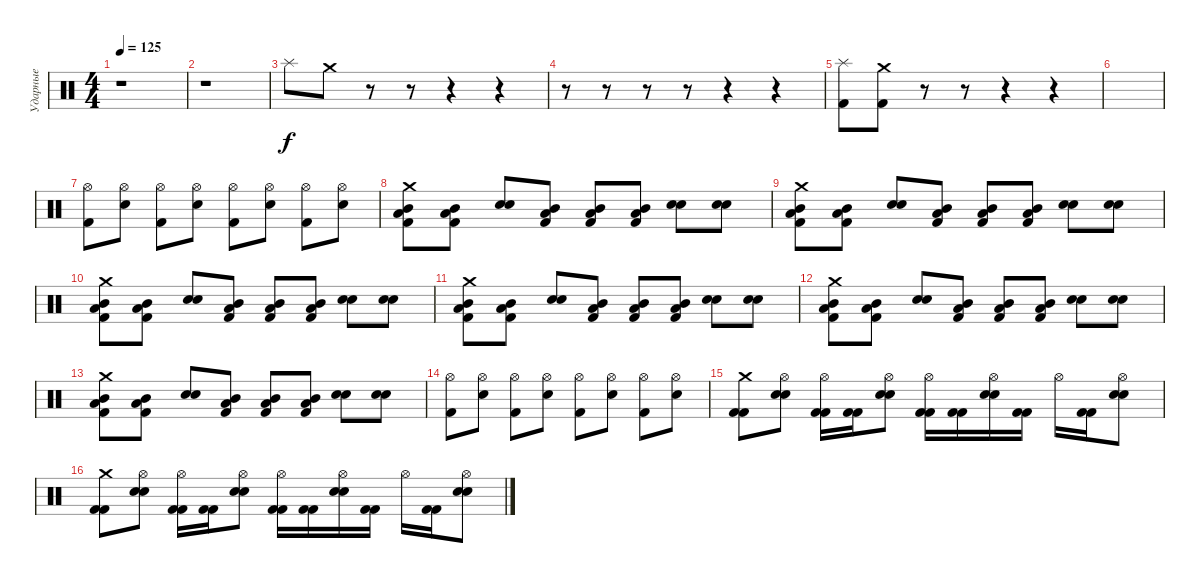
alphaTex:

\track ("Ударные" "Ударные") {instrument percussion}
\staff {score}
\articulation defaults
\ts (4 4)
\tempo 125
\clef neutral
\ks c
r.1{dy f} |
r.1 |
"Splash (hit)".8 "Crash medium (hit)".8 r.8 r.8 r.4 r.4 |
r.8 r.8 r.8 r.8 r.4 r.4 |
("Splash (hit)" "Kick (hit) 2").8 ("Crash medium (hit)" "Kick (hit) 2").8 r.8 r.8 r.4 r.4 |
|
("Hi-Hat (open)" "Kick (hit) 2").8 ("Hi-Hat (open)" "Electric Snare (hit)").8 ("Hi-Hat (open)" "Kick (hit) 2").8 ("Hi-Hat (open)" "Electric Snare (hit)").8 ("Hi-Hat (open)" "Kick (hit) 2").8 ("Hi-Hat (open)" "Electric Snare (hit)").8 ("Hi-Hat (open)" "Kick (hit) 2").8 ("Hi-Hat (open)" "Electric Snare (hit)").8 |
("Crash medium (hit)" "Low Tom (hit)" "Mid Tom (hit)" "Kick (hit) 2").8 ("Low Tom (hit)" "Mid Tom (hit)" "Kick (hit) 2").8 ("Electric Snare (hit)" "Electric Snare (hit)").8 ("Low Tom (hit)" "Mid Tom (hit)" "Kick (hit) 2").8 ("Low Tom (hit)" "Mid Tom (hit)" "Kick (hit) 2").8 ("Low Tom (hit)" "Mid Tom (hit)" "Kick (hit) 2").8 ("Electric Snare (hit)" "Electric Snare (hit)").8 ("Electric Snare (hit)" "Electric Snare (hit)").8 |
("Crash medium (hit)" "Low Tom (hit)" "Mid Tom (hit)" "Kick (hit) 2").8 ("Low Tom (hit)" "Mid Tom (hit)" "Kick (hit) 2").8 ("Electric Snare (hit)" "Electric Snare (hit)").8 ("Low Tom (hit)" "Mid Tom (hit)" "Kick (hit) 2").8 ("Low Tom (hit)" "Mid Tom (hit)" "Kick (hit) 2").8 ("Low Tom (hit)" "Mid Tom (hit)" "Kick (hit) 2").8 ("Electric Snare (hit)" "Electric Snare (hit)").8 ("Electric Snare (hit)" "Electric Snare (hit)").8 |
("Crash medium (hit)" "Low Tom (hit)" "Mid Tom (hit)" "Kick (hit) 2").8 ("Low Tom (hit)" "Mid Tom (hit)" "Kick (hit) 2").8 ("Electric Snare (hit)" "Electric Snare (hit)").8 ("Low Tom (hit)" "Mid Tom (hit)" "Kick (hit) 2").8 ("Low Tom (hit)" "Mid Tom (hit)" "Kick (hit) 2").8 ("Low Tom (hit)" "Mid Tom (hit)" "Kick (hit) 2").8 ("Electric Snare (hit)" "Electric Snare (hit)").8 ("Electric Snare (hit)" "Electric Snare (hit)").8 |
("Crash medium (hit)" "Low Tom (hit)" "Mid Tom (hit)" "Kick (hit) 2").8 ("Low Tom (hit)" "Mid Tom (hit)" "Kick (hit) 2").8 ("Electric Snare (hit)" "Electric Snare (hit)").8 ("Low Tom (hit)" "Mid Tom (hit)" "Kick (hit) 2").8 ("Low Tom (hit)" "Mid Tom (hit)" "Kick (hit) 2").8 ("Low Tom (hit)" "Mid Tom (hit)" "Kick (hit) 2").8 ("Electric Snare (hit)" "Electric Snare (hit)").8 ("Electric Snare (hit)" "Electric Snare (hit)").8 |
("Crash medium (hit)" "Low Tom (hit)" "Mid Tom (hit)" "Kick (hit) 2").8 ("Low Tom (hit)" "Mid Tom (hit)" "Kick (hit) 2").8 ("Electric Snare (hit)" "Electric Snare (hit)").8 ("Low Tom (hit)" "Mid Tom (hit)" "Kick (hit) 2").8 ("Low Tom (hit)" "Mid Tom (hit)" "Kick (hit) 2").8 ("Low Tom (hit)" "Mid Tom (hit)" "Kick (hit) 2").8 ("Electric Snare (hit)" "Electric Snare (hit)").8 ("Electric Snare (hit)" "Electric Snare (hit)").8 |
("Crash medium (hit)" "Low Tom (hit)" "Mid Tom (hit)" "Kick (hit) 2").8 ("Low Tom (hit)" "Mid Tom (hit)" "Kick (hit) 2").8 ("Electric Snare (hit)" "Electric Snare (hit)").8 ("Low Tom (hit)" "Mid Tom (hit)" "Kick (hit) 2").8 ("Low Tom (hit)" "Mid Tom (hit)" "Kick (hit) 2").8 ("Low Tom (hit)" "Mid Tom (hit)" "Kick (hit) 2").8 ("Electric Snare (hit)" "Electric Snare (hit)").8 ("Electric Snare (hit)" "Electric Snare (hit)").8 |
("Hi-Hat (open)" "Kick (hit) 2").8 ("Hi-Hat (open)" "Electric Snare (hit)").8 ("Hi-Hat (open)" "Kick (hit) 2").8 ("Hi-Hat (open)" "Electric Snare (hit)").8 ("Hi-Hat (open)" "Kick (hit) 2").8 ("Hi-Hat (open)" "Electric Snare (hit)").8 ("Hi-Hat (open)" "Kick (hit) 2").8 ("Hi-Hat (open)" "Electric Snare (hit)").8 |
("Crash medium (hit)" "Kick (hit) 2" "Kick (hit) 2").8 ("Hi-Hat (open)" "Electric Snare (hit)" "Electric Snare (hit)").8 ("Hi-Hat (open)" "Kick (hit) 2" "Kick (hit) 2").16 ("Kick (hit) 2" "Kick (hit) 2").16 ("Hi-Hat (open)" "Electric Snare (hit)" "Electric Snare (hit)").8 ("Hi-Hat (open)" "Kick (hit) 2" "Kick (hit) 2").16 ("Kick (hit) 2" "Kick (hit) 2").16 ("Hi-Hat (open)" "Electric Snare (hit)" "Electric Snare (hit)").16 ("Kick (hit) 2" "Kick (hit) 2").16 "Hi-Hat (open)".16 ("Kick (hit) 2" "Kick (hit) 2").16 ("Hi-Hat (open)" "Electric Snare (hit)" "Electric Snare (hit)").8 |
("Crash medium (hit)" "Kick (hit) 2" "Kick (hit) 2").8 ("Hi-Hat (open)" "Electric Snare (hit)" "Electric Snare (hit)").8 ("Hi-Hat (open)" "Kick (hit) 2" "Kick (hit) 2").16 ("Kick (hit) 2" "Kick (hit) 2").16 ("Hi-Hat (open)" "Electric Snare (hit)" "Electric Snare (hit)").8 ("Hi-Hat (open)" "Kick (hit) 2" "Kick (hit) 2").16 ("Kick (hit) 2" "Kick (hit) 2").16 ("Hi-Hat (open)" "Electric Snare (hit)" "Electric Snare (hit)").16 ("Kick (hit) 2" "Kick (hit) 2").16 "Hi-Hat (open)".16 ("Kick (hit) 2" "Kick (hit) 2").16 ("Hi-Hat (open)" "Electric Snare (hit)" "Electric Snare (hit)").8
